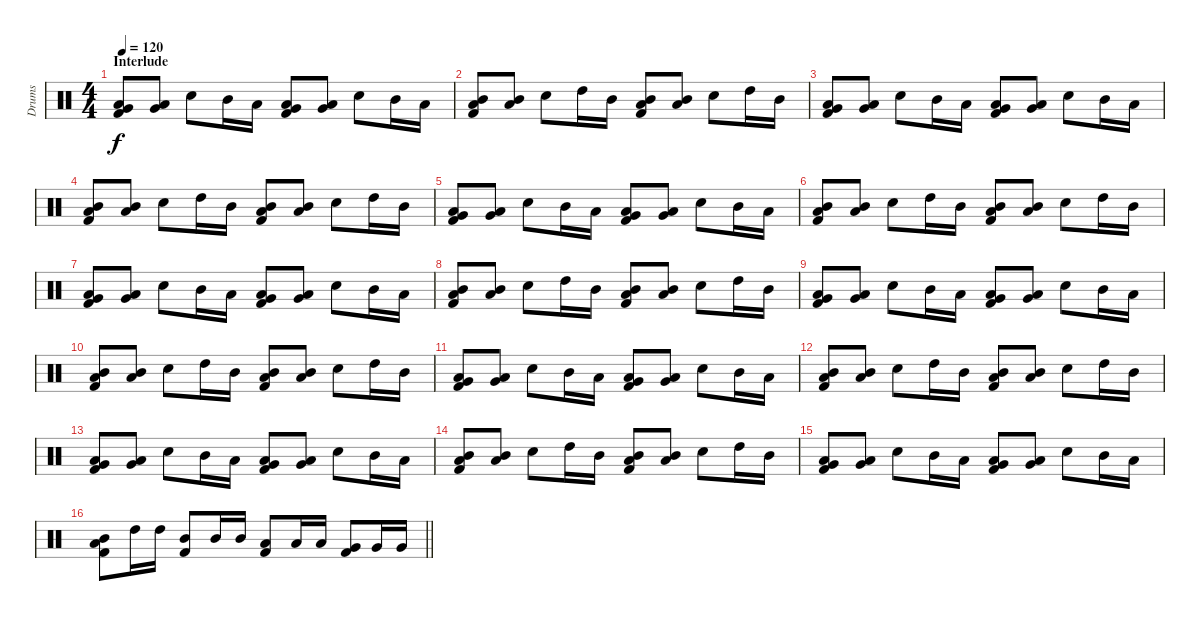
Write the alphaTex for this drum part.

\track ("Drums" "Drums") {instrument percussion}
\staff {score}
\articulation defaults
\ts (4 4)
\section ("" "Interlude")
\tempo 120
\clef neutral
\ks c
("Low Tom (hit)" "Very Low Tom (hit)" "Kick (hit) 2").8{dy f} ("Low Tom (hit)" "Very Low Tom (hit)").8 "Electric Snare (hit)".8 "Mid Tom (hit)".16 "Low Tom (hit)".16 ("Low Tom (hit)" "Very Low Tom (hit)" "Kick (hit) 2").8 ("Low Tom (hit)" "Very Low Tom (hit)").8 "Electric Snare (hit)".8 "Mid Tom (hit)".16 "Low Tom (hit)".16 |
("Mid Tom (hit)" "Low Tom (hit)" "Kick (hit) 2").8 ("Mid Tom (hit)" "Low Tom (hit)").8 "Electric Snare (hit)".8 "High Tom (hit)".16 "Mid Tom (hit)".16 ("Mid Tom (hit)" "Low Tom (hit)" "Kick (hit) 2").8 ("Mid Tom (hit)" "Low Tom (hit)").8 "Electric Snare (hit)".8 "High Tom (hit)".16 "Mid Tom (hit)".16 |
("Low Tom (hit)" "Very Low Tom (hit)" "Kick (hit) 2").8 ("Low Tom (hit)" "Very Low Tom (hit)").8 "Electric Snare (hit)".8 "Mid Tom (hit)".16 "Low Tom (hit)".16 ("Low Tom (hit)" "Very Low Tom (hit)" "Kick (hit) 2").8 ("Low Tom (hit)" "Very Low Tom (hit)").8 "Electric Snare (hit)".8 "Mid Tom (hit)".16 "Low Tom (hit)".16 |
("Mid Tom (hit)" "Low Tom (hit)" "Kick (hit) 2").8 ("Mid Tom (hit)" "Low Tom (hit)").8 "Electric Snare (hit)".8 "High Tom (hit)".16 "Mid Tom (hit)".16 ("Mid Tom (hit)" "Low Tom (hit)" "Kick (hit) 2").8 ("Mid Tom (hit)" "Low Tom (hit)").8 "Electric Snare (hit)".8 "High Tom (hit)".16 "Mid Tom (hit)".16 |
("Low Tom (hit)" "Very Low Tom (hit)" "Kick (hit) 2").8 ("Low Tom (hit)" "Very Low Tom (hit)").8 "Electric Snare (hit)".8 "Mid Tom (hit)".16 "Low Tom (hit)".16 ("Low Tom (hit)" "Very Low Tom (hit)" "Kick (hit) 2").8 ("Low Tom (hit)" "Very Low Tom (hit)").8 "Electric Snare (hit)".8 "Mid Tom (hit)".16 "Low Tom (hit)".16 |
("Mid Tom (hit)" "Low Tom (hit)" "Kick (hit) 2").8 ("Mid Tom (hit)" "Low Tom (hit)").8 "Electric Snare (hit)".8 "High Tom (hit)".16 "Mid Tom (hit)".16 ("Mid Tom (hit)" "Low Tom (hit)" "Kick (hit) 2").8 ("Mid Tom (hit)" "Low Tom (hit)").8 "Electric Snare (hit)".8 "High Tom (hit)".16 "Mid Tom (hit)".16 |
("Low Tom (hit)" "Very Low Tom (hit)" "Kick (hit) 2").8 ("Low Tom (hit)" "Very Low Tom (hit)").8 "Electric Snare (hit)".8 "Mid Tom (hit)".16 "Low Tom (hit)".16 ("Low Tom (hit)" "Very Low Tom (hit)" "Kick (hit) 2").8 ("Low Tom (hit)" "Very Low Tom (hit)").8 "Electric Snare (hit)".8 "Mid Tom (hit)".16 "Low Tom (hit)".16 |
("Mid Tom (hit)" "Low Tom (hit)" "Kick (hit) 2").8 ("Mid Tom (hit)" "Low Tom (hit)").8 "Electric Snare (hit)".8 "High Tom (hit)".16 "Mid Tom (hit)".16 ("Mid Tom (hit)" "Low Tom (hit)" "Kick (hit) 2").8 ("Mid Tom (hit)" "Low Tom (hit)").8 "Electric Snare (hit)".8 "High Tom (hit)".16 "Mid Tom (hit)".16 |
("Low Tom (hit)" "Very Low Tom (hit)" "Kick (hit) 2").8 ("Low Tom (hit)" "Very Low Tom (hit)").8 "Electric Snare (hit)".8 "Mid Tom (hit)".16 "Low Tom (hit)".16 ("Low Tom (hit)" "Very Low Tom (hit)" "Kick (hit) 2").8 ("Low Tom (hit)" "Very Low Tom (hit)").8 "Electric Snare (hit)".8 "Mid Tom (hit)".16 "Low Tom (hit)".16 |
("Mid Tom (hit)" "Low Tom (hit)" "Kick (hit) 2").8 ("Mid Tom (hit)" "Low Tom (hit)").8 "Electric Snare (hit)".8 "High Tom (hit)".16 "Mid Tom (hit)".16 ("Mid Tom (hit)" "Low Tom (hit)" "Kick (hit) 2").8 ("Mid Tom (hit)" "Low Tom (hit)").8 "Electric Snare (hit)".8 "High Tom (hit)".16 "Mid Tom (hit)".16 |
("Low Tom (hit)" "Very Low Tom (hit)" "Kick (hit) 2").8 ("Low Tom (hit)" "Very Low Tom (hit)").8 "Electric Snare (hit)".8 "Mid Tom (hit)".16 "Low Tom (hit)".16 ("Low Tom (hit)" "Very Low Tom (hit)" "Kick (hit) 2").8 ("Low Tom (hit)" "Very Low Tom (hit)").8 "Electric Snare (hit)".8 "Mid Tom (hit)".16 "Low Tom (hit)".16 |
("Mid Tom (hit)" "Low Tom (hit)" "Kick (hit) 2").8 ("Mid Tom (hit)" "Low Tom (hit)").8 "Electric Snare (hit)".8 "High Tom (hit)".16 "Mid Tom (hit)".16 ("Mid Tom (hit)" "Low Tom (hit)" "Kick (hit) 2").8 ("Mid Tom (hit)" "Low Tom (hit)").8 "Electric Snare (hit)".8 "High Tom (hit)".16 "Mid Tom (hit)".16 |
("Low Tom (hit)" "Very Low Tom (hit)" "Kick (hit) 2").8 ("Low Tom (hit)" "Very Low Tom (hit)").8 "Electric Snare (hit)".8 "Mid Tom (hit)".16 "Low Tom (hit)".16 ("Low Tom (hit)" "Very Low Tom (hit)" "Kick (hit) 2").8 ("Low Tom (hit)" "Very Low Tom (hit)").8 "Electric Snare (hit)".8 "Mid Tom (hit)".16 "Low Tom (hit)".16 |
("Mid Tom (hit)" "Low Tom (hit)" "Kick (hit) 2").8 ("Mid Tom (hit)" "Low Tom (hit)").8 "Electric Snare (hit)".8 "High Tom (hit)".16 "Mid Tom (hit)".16 ("Mid Tom (hit)" "Low Tom (hit)" "Kick (hit) 2").8 ("Mid Tom (hit)" "Low Tom (hit)").8 "Electric Snare (hit)".8 "High Tom (hit)".16 "Mid Tom (hit)".16 |
("Low Tom (hit)" "Very Low Tom (hit)" "Kick (hit) 2").8 ("Low Tom (hit)" "Very Low Tom (hit)").8 "Electric Snare (hit)".8 "Mid Tom (hit)".16 "Low Tom (hit)".16 ("Low Tom (hit)" "Very Low Tom (hit)" "Kick (hit) 2").8 ("Low Tom (hit)" "Very Low Tom (hit)").8 "Electric Snare (hit)".8 "Mid Tom (hit)".16 "Low Tom (hit)".16 |
\barLineRight lightlight
("Mid Tom (hit)" "Low Tom (hit)" "Kick (hit) 2").8 "High Tom (hit)".16 "High Tom (hit)".16 ("Mid Tom (hit)" "Kick (hit) 2").8 "Mid Tom (hit)".16 "Mid Tom (hit)".16 ("Low Tom (hit)" "Kick (hit) 2").8 "Low Tom (hit)".16 "Low Tom (hit)".16 ("Very Low Tom (hit)" "Kick (hit) 2").8 "Very Low Tom (hit)".16 "Very Low Tom (hit)".16
